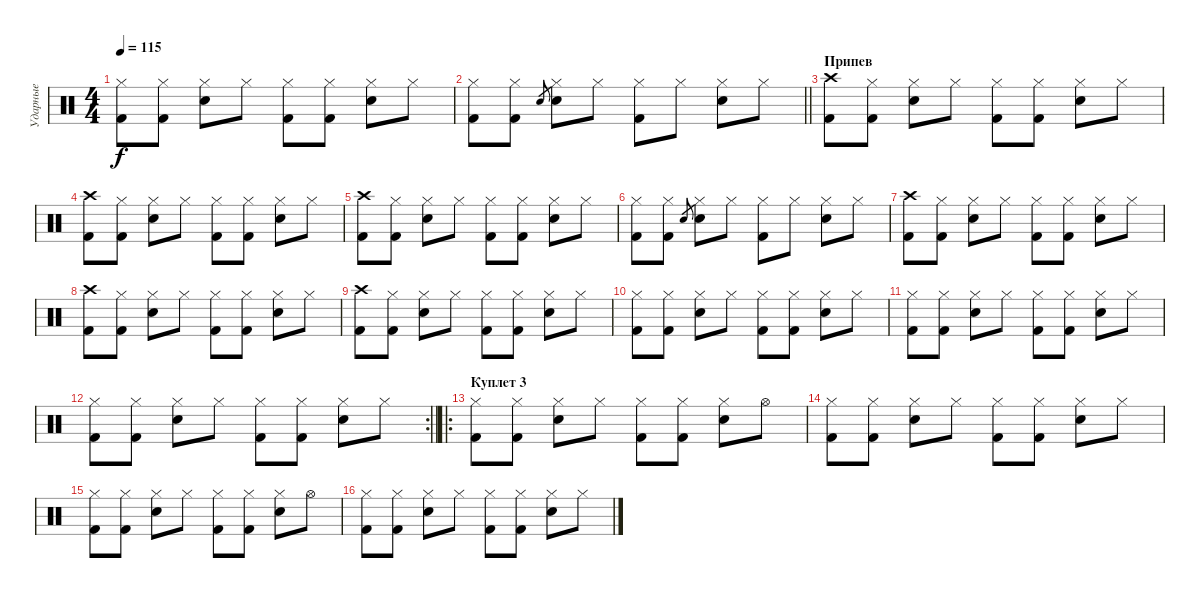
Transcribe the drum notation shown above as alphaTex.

\track ("Ударные" "Ударные") {instrument percussion}
\staff {score}
\articulation defaults
\ts (4 4)
\tempo 115
\clef neutral
\ks c
("Hi-Hat (closed)" "Kick (hit) 2").8{dy f} ("Hi-Hat (closed)" "Kick (hit) 2").8 ("Hi-Hat (closed)" "Snare (hit) 2").8 "Hi-Hat (closed)".8 ("Hi-Hat (closed)" "Kick (hit) 2").8 ("Hi-Hat (closed)" "Kick (hit) 2").8 ("Hi-Hat (closed)" "Snare (hit) 2").8 "Hi-Hat (closed)".8 |
\barLineRight lightlight
("Hi-Hat (closed)" "Kick (hit) 2").8 ("Hi-Hat (closed)" "Kick (hit) 2").8 "Snare (hit) 2".8{gr} ("Hi-Hat (closed)" "Snare (hit) 2").8 "Hi-Hat (closed)".8 ("Hi-Hat (closed)" "Kick (hit) 2").8 "Hi-Hat (closed)".8 ("Hi-Hat (closed)" "Snare (hit) 2").8 "Hi-Hat (closed)".8 |
\section ("" "Припев")
("Crash high (hit)" "Kick (hit) 2").8 ("Hi-Hat (closed)" "Kick (hit) 2").8 ("Hi-Hat (closed)" "Snare (hit) 2").8 "Hi-Hat (closed)".8 ("Hi-Hat (closed)" "Kick (hit) 2").8 ("Hi-Hat (closed)" "Kick (hit) 2").8 ("Hi-Hat (closed)" "Snare (hit) 2").8 "Hi-Hat (closed)".8 |
("Crash high (hit)" "Kick (hit) 2").8 ("Hi-Hat (closed)" "Kick (hit) 2").8 ("Hi-Hat (closed)" "Snare (hit) 2").8 "Hi-Hat (closed)".8 ("Hi-Hat (closed)" "Kick (hit) 2").8 ("Hi-Hat (closed)" "Kick (hit) 2").8 ("Hi-Hat (closed)" "Snare (hit) 2").8 "Hi-Hat (closed)".8 |
("Crash high (hit)" "Kick (hit) 2").8 ("Hi-Hat (closed)" "Kick (hit) 2").8 ("Hi-Hat (closed)" "Snare (hit) 2").8 "Hi-Hat (closed)".8 ("Hi-Hat (closed)" "Kick (hit) 2").8 ("Hi-Hat (closed)" "Kick (hit) 2").8 ("Hi-Hat (closed)" "Snare (hit) 2").8 "Hi-Hat (closed)".8 |
("Hi-Hat (closed)" "Kick (hit) 2").8 ("Hi-Hat (closed)" "Kick (hit) 2").8 "Snare (hit) 2".8{gr} ("Hi-Hat (closed)" "Snare (hit) 2").8 "Hi-Hat (closed)".8 ("Hi-Hat (closed)" "Kick (hit) 2").8 "Hi-Hat (closed)".8 ("Hi-Hat (closed)" "Snare (hit) 2").8 "Hi-Hat (closed)".8 |
("Crash high (hit)" "Kick (hit) 2").8 ("Hi-Hat (closed)" "Kick (hit) 2").8 ("Hi-Hat (closed)" "Snare (hit) 2").8 "Hi-Hat (closed)".8 ("Hi-Hat (closed)" "Kick (hit) 2").8 ("Hi-Hat (closed)" "Kick (hit) 2").8 ("Hi-Hat (closed)" "Snare (hit) 2").8 "Hi-Hat (closed)".8 |
("Crash high (hit)" "Kick (hit) 2").8 ("Hi-Hat (closed)" "Kick (hit) 2").8 ("Hi-Hat (closed)" "Snare (hit) 2").8 "Hi-Hat (closed)".8 ("Hi-Hat (closed)" "Kick (hit) 2").8 ("Hi-Hat (closed)" "Kick (hit) 2").8 ("Hi-Hat (closed)" "Snare (hit) 2").8 "Hi-Hat (closed)".8 |
("Crash high (hit)" "Kick (hit) 2").8 ("Hi-Hat (closed)" "Kick (hit) 2").8 ("Hi-Hat (closed)" "Snare (hit) 2").8 "Hi-Hat (closed)".8 ("Hi-Hat (closed)" "Kick (hit) 2").8 ("Hi-Hat (closed)" "Kick (hit) 2").8 ("Hi-Hat (closed)" "Snare (hit) 2").8 "Hi-Hat (closed)".8 |
("Hi-Hat (closed)" "Kick (hit) 2").8 ("Hi-Hat (closed)" "Kick (hit) 2").8 ("Hi-Hat (closed)" "Snare (hit) 2").8 "Hi-Hat (closed)".8 ("Hi-Hat (closed)" "Kick (hit) 2").8 ("Hi-Hat (closed)" "Kick (hit) 2").8 ("Hi-Hat (closed)" "Snare (hit) 2").8 "Hi-Hat (closed)".8 |
("Hi-Hat (closed)" "Kick (hit) 2").8 ("Hi-Hat (closed)" "Kick (hit) 2").8 ("Hi-Hat (closed)" "Snare (hit) 2").8 "Hi-Hat (closed)".8 ("Hi-Hat (closed)" "Kick (hit) 2").8 ("Hi-Hat (closed)" "Kick (hit) 2").8 ("Hi-Hat (closed)" "Snare (hit) 2").8 "Hi-Hat (closed)".8 |
\rc 2
\barLineRight lightlight
("Hi-Hat (closed)" "Kick (hit) 2").8 ("Hi-Hat (closed)" "Kick (hit) 2").8 ("Hi-Hat (closed)" "Snare (hit) 2").8 "Hi-Hat (closed)".8 ("Hi-Hat (closed)" "Kick (hit) 2").8 ("Hi-Hat (closed)" "Kick (hit) 2").8 ("Hi-Hat (closed)" "Snare (hit) 2").8 "Hi-Hat (closed)".8 |
\ro
\section ("" "Куплет 3")
("Hi-Hat (closed)" "Kick (hit) 2").8 ("Hi-Hat (closed)" "Kick (hit) 2").8 ("Hi-Hat (closed)" "Snare (hit) 2").8 "Hi-Hat (closed)".8 ("Hi-Hat (closed)" "Kick (hit) 2").8 ("Hi-Hat (closed)" "Kick (hit) 2").8 ("Hi-Hat (closed)" "Snare (hit) 2").8 "Hi-Hat (open)".8 |
("Hi-Hat (closed)" "Kick (hit) 2").8 ("Hi-Hat (closed)" "Kick (hit) 2").8 ("Hi-Hat (closed)" "Snare (hit) 2").8 "Hi-Hat (closed)".8 ("Hi-Hat (closed)" "Kick (hit) 2").8 ("Hi-Hat (closed)" "Kick (hit) 2").8 ("Hi-Hat (closed)" "Snare (hit) 2").8 "Hi-Hat (closed)".8 |
("Hi-Hat (closed)" "Kick (hit) 2").8 ("Hi-Hat (closed)" "Kick (hit) 2").8 ("Hi-Hat (closed)" "Snare (hit) 2").8 "Hi-Hat (closed)".8 ("Hi-Hat (closed)" "Kick (hit) 2").8 ("Hi-Hat (closed)" "Kick (hit) 2").8 ("Hi-Hat (closed)" "Snare (hit) 2").8 "Hi-Hat (open)".8 |
("Hi-Hat (closed)" "Kick (hit) 2").8 ("Hi-Hat (closed)" "Kick (hit) 2").8 ("Hi-Hat (closed)" "Snare (hit) 2").8 "Hi-Hat (closed)".8 ("Hi-Hat (closed)" "Kick (hit) 2").8 ("Hi-Hat (closed)" "Kick (hit) 2").8 ("Hi-Hat (closed)" "Snare (hit) 2").8 "Hi-Hat (closed)".8
